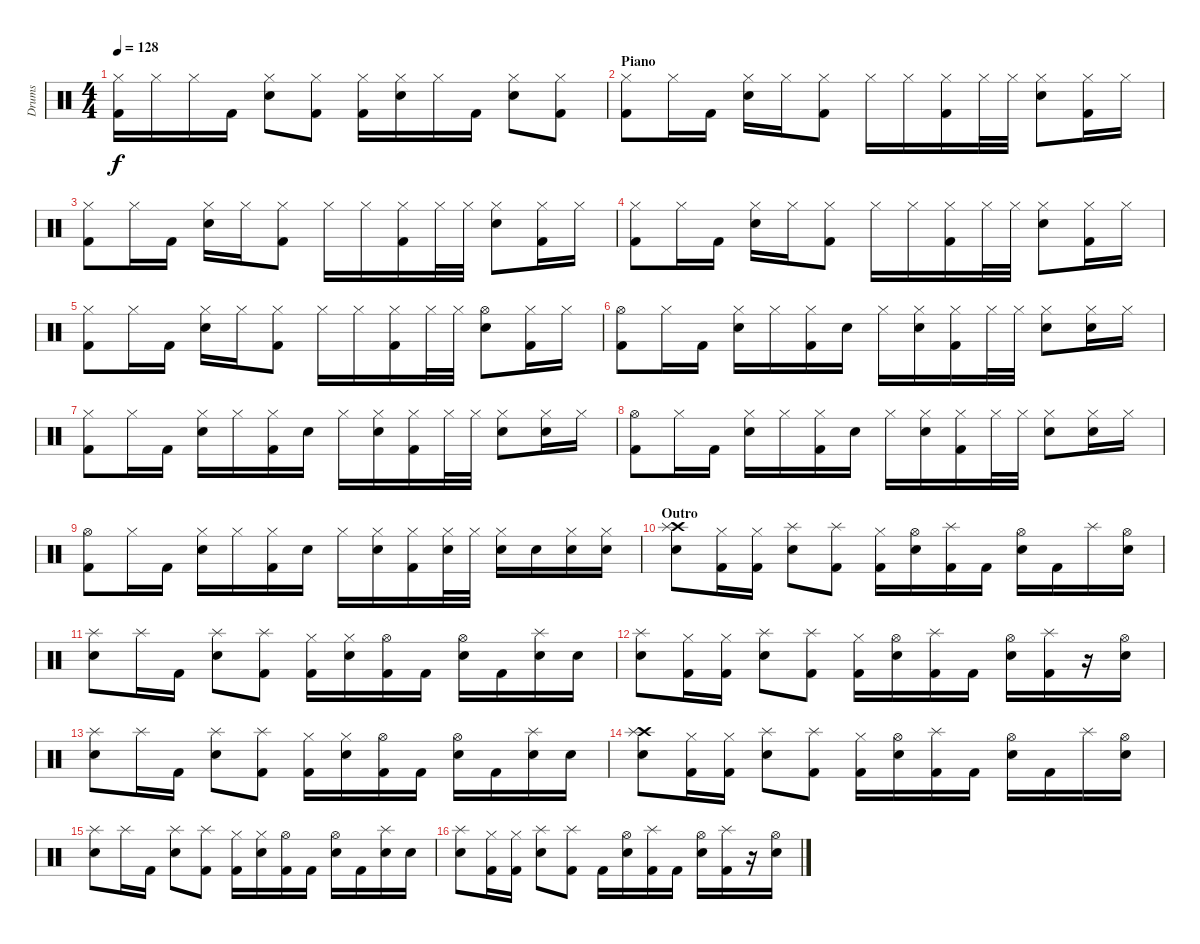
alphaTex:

\track ("Drums" "Drums") {instrument percussion}
\staff {score}
\articulation defaults
\ts (4 4)
\tempo 128
\clef neutral
\ks c
("Hi-Hat (closed)" "Kick (hit) 2").16{dy f} "Hi-Hat (closed)".16 "Hi-Hat (closed)".16 "Kick (hit) 2".16 ("Hi-Hat (closed)" "Snare (hit) 2").8 ("Hi-Hat (closed)" "Kick (hit) 2").8 ("Hi-Hat (closed)" "Kick (hit) 2").16 ("Hi-Hat (closed)" "Snare (hit) 2").16 "Hi-Hat (closed)".16 "Kick (hit) 2".16 ("Hi-Hat (closed)" "Snare (hit) 2").8 ("Hi-Hat (closed)" "Kick (hit) 2").8 |
\section ("" "Piano")
("Hi-Hat (closed)" "Kick (hit) 2").8 "Hi-Hat (closed)".16 "Kick (hit) 2".16 ("Hi-Hat (closed)" "Snare (hit) 2").16 "Hi-Hat (closed)".16 ("Hi-Hat (closed)" "Kick (hit) 2").8 "Hi-Hat (closed)".16 "Hi-Hat (closed)".16 ("Hi-Hat (closed)" "Kick (hit) 2").16 "Hi-Hat (closed)".32 "Hi-Hat (closed)".32 ("Hi-Hat (closed)" "Snare (hit) 2").8 ("Hi-Hat (closed)" "Kick (hit) 2").16 "Hi-Hat (closed)".16 |
("Hi-Hat (closed)" "Kick (hit) 2").8 "Hi-Hat (closed)".16 "Kick (hit) 2".16 ("Hi-Hat (closed)" "Snare (hit) 2").16 "Hi-Hat (closed)".16 ("Hi-Hat (closed)" "Kick (hit) 2").8 "Hi-Hat (closed)".16 "Hi-Hat (closed)".16 ("Hi-Hat (closed)" "Kick (hit) 2").16 "Hi-Hat (closed)".32 "Hi-Hat (closed)".32 ("Hi-Hat (closed)" "Snare (hit) 2").8 ("Hi-Hat (closed)" "Kick (hit) 2").16 "Hi-Hat (closed)".16 |
("Hi-Hat (closed)" "Kick (hit) 2").8 "Hi-Hat (closed)".16 "Kick (hit) 2".16 ("Hi-Hat (closed)" "Snare (hit) 2").16 "Hi-Hat (closed)".16 ("Hi-Hat (closed)" "Kick (hit) 2").8 "Hi-Hat (closed)".16 "Hi-Hat (closed)".16 ("Hi-Hat (closed)" "Kick (hit) 2").16 "Hi-Hat (closed)".32 "Hi-Hat (closed)".32 ("Hi-Hat (closed)" "Snare (hit) 2").8 ("Hi-Hat (closed)" "Kick (hit) 2").16 "Hi-Hat (closed)".16 |
("Hi-Hat (closed)" "Kick (hit) 2").8 "Hi-Hat (closed)".16 "Kick (hit) 2".16 ("Hi-Hat (closed)" "Snare (hit) 2").16 "Hi-Hat (closed)".16 ("Hi-Hat (closed)" "Kick (hit) 2").8 "Hi-Hat (closed)".16 "Hi-Hat (closed)".16 ("Hi-Hat (closed)" "Kick (hit) 2").16 "Hi-Hat (closed)".32 "Hi-Hat (closed)".32 ("Hi-Hat (open)" "Snare (hit) 2").8 ("Hi-Hat (closed)" "Kick (hit) 2").16 "Hi-Hat (closed)".16 |
("Hi-Hat (open)" "Kick (hit) 2").8 "Hi-Hat (closed)".16 "Kick (hit) 2".16 ("Hi-Hat (closed)" "Snare (hit) 2").16 "Hi-Hat (closed)".16 ("Hi-Hat (closed)" "Kick (hit) 2").16 "Snare (hit) 2".16 "Hi-Hat (closed)".16 ("Hi-Hat (closed)" "Snare (hit) 2").16 ("Hi-Hat (closed)" "Kick (hit) 2").16 "Hi-Hat (closed)".32 "Hi-Hat (closed)".32 ("Hi-Hat (closed)" "Snare (hit) 2").8 ("Hi-Hat (closed)" "Snare (hit) 2").16 "Hi-Hat (closed)".16 |
("Hi-Hat (closed)" "Kick (hit) 2").8 "Hi-Hat (closed)".16 "Kick (hit) 2".16 ("Hi-Hat (closed)" "Snare (hit) 2").16 "Hi-Hat (closed)".16 ("Hi-Hat (closed)" "Kick (hit) 2").16 "Snare (hit) 2".16 "Hi-Hat (closed)".16 ("Hi-Hat (closed)" "Snare (hit) 2").16 ("Hi-Hat (closed)" "Kick (hit) 2").16 "Hi-Hat (closed)".32 "Hi-Hat (closed)".32 ("Hi-Hat (closed)" "Snare (hit) 2").8 ("Hi-Hat (closed)" "Snare (hit) 2").16 "Hi-Hat (closed)".16 |
("Hi-Hat (open)" "Kick (hit) 2").8 "Hi-Hat (closed)".16 "Kick (hit) 2".16 ("Hi-Hat (closed)" "Snare (hit) 2").16 "Hi-Hat (closed)".16 ("Hi-Hat (closed)" "Kick (hit) 2").16 "Snare (hit) 2".16 "Hi-Hat (closed)".16 ("Hi-Hat (closed)" "Snare (hit) 2").16 ("Hi-Hat (closed)" "Kick (hit) 2").16 "Hi-Hat (closed)".32 "Hi-Hat (closed)".32 ("Hi-Hat (closed)" "Snare (hit) 2").8 ("Hi-Hat (closed)" "Snare (hit) 2").16 "Hi-Hat (closed)".16 |
("Hi-Hat (open)" "Kick (hit) 2").8 "Hi-Hat (closed)".16 "Kick (hit) 2".16 ("Hi-Hat (closed)" "Snare (hit) 2").16 "Hi-Hat (closed)".16 ("Hi-Hat (closed)" "Kick (hit) 2").16 "Snare (hit) 2".16 "Hi-Hat (closed)".16 ("Hi-Hat (closed)" "Snare (hit) 2").16 ("Hi-Hat (closed)" "Kick (hit) 2").16 ("Hi-Hat (closed)" "Snare (hit) 2").32 "Hi-Hat (closed)".32 ("Hi-Hat (closed)" "Snare (hit) 2").16 "Snare (hit) 2".16 ("Hi-Hat (closed)" "Snare (hit) 2").16 ("Hi-Hat (closed)" "Snare (hit) 2").16 |
\section ("" "Outro")
("Crash high (hit)" "Splash (hit)" "Snare (hit) 2").8 ("Hi-Hat (closed)" "Kick (hit) 2").16 ("Hi-Hat (closed)" "Kick (hit) 2").16 ("Splash (hit)" "Snare (hit) 2").8 ("Splash (hit)" "Kick (hit) 2").8 ("Hi-Hat (closed)" "Kick (hit) 2").16 ("Hi-Hat (open)" "Snare (hit) 2").16 ("Splash (hit)" "Kick (hit) 2").16 "Kick (hit) 2".16 ("Hi-Hat (open)" "Snare (hit) 2").16 "Kick (hit) 2".16 "Splash (hit)".16 ("Hi-Hat (open)" "Snare (hit) 2").16 |
("Splash (hit)" "Snare (hit) 2").8 "Splash (hit)".16 "Kick (hit) 2".16 ("Splash (hit)" "Snare (hit) 2").8 ("Splash (hit)" "Kick (hit) 2").8 ("Hi-Hat (closed)" "Kick (hit) 2").16 ("Hi-Hat (closed)" "Snare (hit) 2").16 ("Hi-Hat (open)" "Kick (hit) 2").16 "Kick (hit) 2".16 ("Hi-Hat (open)" "Snare (hit) 2").16 "Kick (hit) 2".16 ("Splash (hit)" "Snare (hit) 2").16 "Snare (hit) 2".16 |
("Splash (hit)" "Snare (hit) 2").8 ("Hi-Hat (closed)" "Kick (hit) 2").16 ("Hi-Hat (closed)" "Kick (hit) 2").16 ("Splash (hit)" "Snare (hit) 2").8 ("Splash (hit)" "Kick (hit) 2").8 ("Hi-Hat (closed)" "Kick (hit) 2").16 ("Hi-Hat (open)" "Snare (hit) 2").16 ("Splash (hit)" "Kick (hit) 2").16 "Kick (hit) 2".16 ("Hi-Hat (open)" "Snare (hit) 2").16 ("Splash (hit)" "Kick (hit) 2").16 r.16 ("Hi-Hat (open)" "Snare (hit) 2").16 |
("Splash (hit)" "Snare (hit) 2").8 "Splash (hit)".16 "Kick (hit) 2".16 ("Splash (hit)" "Snare (hit) 2").8 ("Splash (hit)" "Kick (hit) 2").8 ("Hi-Hat (closed)" "Kick (hit) 2").16 ("Hi-Hat (closed)" "Snare (hit) 2").16 ("Hi-Hat (open)" "Kick (hit) 2").16 "Kick (hit) 2".16 ("Hi-Hat (open)" "Snare (hit) 2").16 "Kick (hit) 2".16 ("Splash (hit)" "Snare (hit) 2").16 "Snare (hit) 2".16 |
("Crash high (hit)" "Splash (hit)" "Snare (hit) 2").8 ("Hi-Hat (closed)" "Kick (hit) 2").16 ("Hi-Hat (closed)" "Kick (hit) 2").16 ("Splash (hit)" "Snare (hit) 2").8 ("Splash (hit)" "Kick (hit) 2").8 ("Hi-Hat (closed)" "Kick (hit) 2").16 ("Hi-Hat (open)" "Snare (hit) 2").16 ("Splash (hit)" "Kick (hit) 2").16 "Kick (hit) 2".16 ("Hi-Hat (open)" "Snare (hit) 2").16 "Kick (hit) 2".16 "Splash (hit)".16 ("Hi-Hat (open)" "Snare (hit) 2").16 |
("Splash (hit)" "Snare (hit) 2").8 "Splash (hit)".16 "Kick (hit) 2".16 ("Splash (hit)" "Snare (hit) 2").8 ("Splash (hit)" "Kick (hit) 2").8 ("Hi-Hat (closed)" "Kick (hit) 2").16 ("Hi-Hat (closed)" "Snare (hit) 2").16 ("Hi-Hat (open)" "Kick (hit) 2").16 "Kick (hit) 2".16 ("Hi-Hat (open)" "Snare (hit) 2").16 "Kick (hit) 2".16 ("Splash (hit)" "Snare (hit) 2").16 "Snare (hit) 2".16 |
("Splash (hit)" "Snare (hit) 2").8 ("Hi-Hat (closed)" "Kick (hit) 2").16 ("Hi-Hat (closed)" "Kick (hit) 2").16 ("Splash (hit)" "Snare (hit) 2").8 ("Splash (hit)" "Kick (hit) 2").8 "Kick (hit) 2".16 ("Hi-Hat (open)" "Snare (hit) 2").16 ("Splash (hit)" "Kick (hit) 2").16 "Kick (hit) 2".16 ("Hi-Hat (open)" "Snare (hit) 2").16 ("Splash (hit)" "Kick (hit) 2").16 r.16 ("Hi-Hat (open)" "Snare (hit) 2").16
